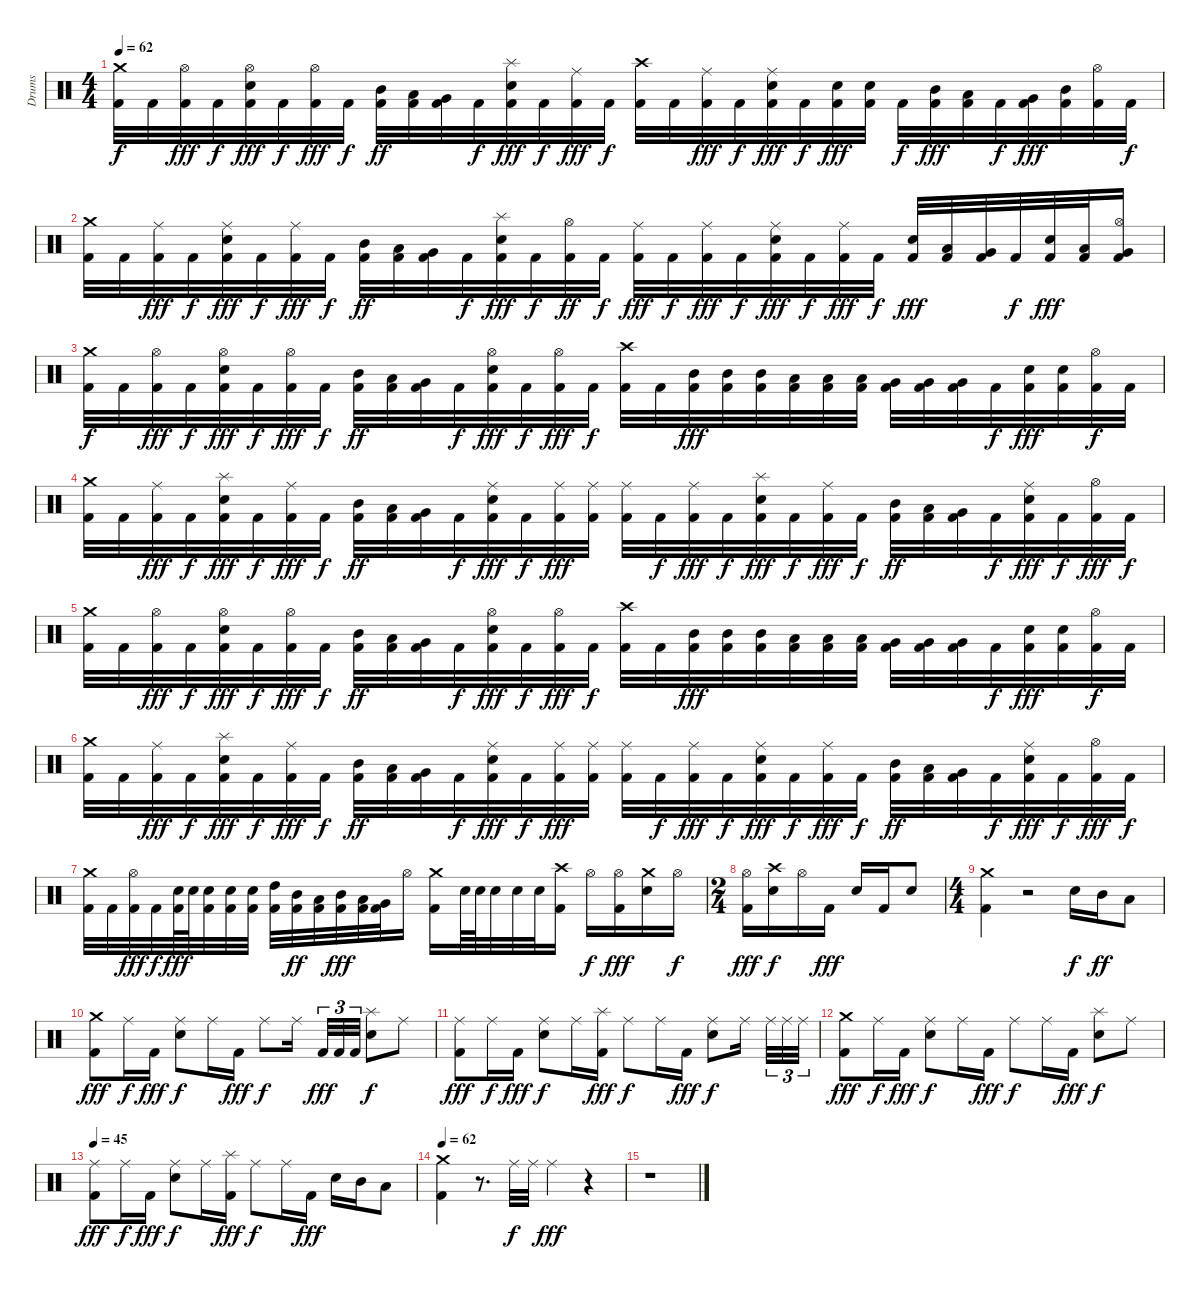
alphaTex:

\track ("Drums" "Drums") {instrument percussion}
\staff {score}
\articulation defaults
\ts (4 4)
\tempo 62
\clef neutral
\ks c
("Crash medium (hit)" "Kick (hit) 2").32{dy f} "Kick (hit) 2".32 ("Hi-Hat (open)" "Kick (hit) 2").32{dy fff} "Kick (hit) 2".32{dy f} ("Hi-Hat (open)" "Electric Snare (hit)" "Kick (hit) 2").32{dy fff} "Kick (hit) 2".32{dy f} ("Hi-Hat (open)" "Kick (hit) 2").32{dy fff} "Kick (hit) 2".32{dy f} ("Mid Tom (hit)" "Kick (hit) 2").32{dy ff} ("Low Tom (hit)" "Kick (hit) 2").32 ("Very Low Tom (hit)" "Kick (hit) 2").32 "Kick (hit) 2".32{dy f} ("Splash (hit)" "Electric Snare (hit)" "Kick (hit) 2").32{dy fff} "Kick (hit) 2".32{dy f} ("Ride (middle)" "Kick (hit) 2").32{dy fff} "Kick (hit) 2".32{dy f} ("Crash high (hit)" "Kick (hit) 2").32 "Kick (hit) 2".32 ("Ride (middle)" "Kick (hit) 2").32{dy fff} "Kick (hit) 2".32{dy f} ("Ride (middle)" "Electric Snare (hit)" "Kick (hit) 2").32{dy fff} "Kick (hit) 2".32{dy f} ("Electric Snare (hit)" "Kick (hit) 2").32{dy fff} ("Electric Snare (hit)" "Kick (hit) 2").32 "Kick (hit) 2".32{dy f} ("Mid Tom (hit)" "Kick (hit) 2").32{dy fff} ("Low Tom (hit)" "Kick (hit) 2").32 "Kick (hit) 2".32{dy f} ("Very Low Tom (hit)" "Kick (hit) 2").32{dy fff} ("Mid Tom (hit)" "Kick (hit) 2").32 ("Hi-Hat (open)" "Kick (hit) 2").32 "Kick (hit) 2".32{dy f} |
("Crash medium (hit)" "Kick (hit) 2").32 "Kick (hit) 2".32 ("Ride (middle)" "Kick (hit) 2").32{dy fff} "Kick (hit) 2".32{dy f} ("Ride (middle)" "Electric Snare (hit)" "Kick (hit) 2").32{dy fff} "Kick (hit) 2".32{dy f} ("Ride (middle)" "Kick (hit) 2").32{dy fff} "Kick (hit) 2".32{dy f} ("Mid Tom (hit)" "Kick (hit) 2").32{dy ff} ("Low Tom (hit)" "Kick (hit) 2").32 ("Very Low Tom (hit)" "Kick (hit) 2").32 "Kick (hit) 2".32{dy f} ("Splash (hit)" "Electric Snare (hit)" "Kick (hit) 2").32{dy fff} "Kick (hit) 2".32{dy f} ("Hi-Hat (open)" "Kick (hit) 2").32{dy ff} "Kick (hit) 2".32{dy f} ("Ride (middle)" "Kick (hit) 2").32{dy fff} "Kick (hit) 2".32{dy f} ("Ride (middle)" "Kick (hit) 2").32{dy fff} "Kick (hit) 2".32{dy f} ("Ride (middle)" "Electric Snare (hit)" "Kick (hit) 2").32{dy fff} "Kick (hit) 2".32{dy f} ("Ride (middle)" "Kick (hit) 2").32{dy fff} "Kick (hit) 2".32{dy f} ("Electric Snare (hit)" "Kick (hit) 2").32{dy fff} ("Low Tom (hit)" "Kick (hit) 2").32 ("Very Low Tom (hit)" "Kick (hit) 2").32 "Kick (hit) 2".32{dy f} ("Electric Snare (hit)" "Kick (hit) 2").32{dy fff} ("Low Tom (hit)" "Kick (hit) 2").32 ("Hi-Hat (open)" "Very Low Tom (hit)" "Kick (hit) 2").16 |
("Crash medium (hit)" "Kick (hit) 2").32{dy f} "Kick (hit) 2".32 ("Hi-Hat (open)" "Kick (hit) 2").32{dy fff} "Kick (hit) 2".32{dy f} ("Hi-Hat (open)" "Electric Snare (hit)" "Kick (hit) 2").32{dy fff} "Kick (hit) 2".32{dy f} ("Hi-Hat (open)" "Kick (hit) 2").32{dy fff} "Kick (hit) 2".32{dy f} ("Mid Tom (hit)" "Kick (hit) 2").32{dy ff} ("Low Tom (hit)" "Kick (hit) 2").32 ("Very Low Tom (hit)" "Kick (hit) 2").32 "Kick (hit) 2".32{dy f} ("Hi-Hat (open)" "Electric Snare (hit)" "Kick (hit) 2").32{dy fff} "Kick (hit) 2".32{dy f} ("Hi-Hat (open)" "Kick (hit) 2").32{dy fff} "Kick (hit) 2".32{dy f} ("Crash high (hit)" "Kick (hit) 2").32 "Kick (hit) 2".32 ("Mid Tom (hit)" "Kick (hit) 2").32{dy fff} ("Mid Tom (hit)" "Kick (hit) 2").32 ("Mid Tom (hit)" "Kick (hit) 2").32 ("Low Tom (hit)" "Kick (hit) 2").32 ("Low Tom (hit)" "Kick (hit) 2").32 ("Low Tom (hit)" "Kick (hit) 2").32 ("Very Low Tom (hit)" "Kick (hit) 2").32 ("Very Low Tom (hit)" "Kick (hit) 2").32 ("Very Low Tom (hit)" "Kick (hit) 2").32 "Kick (hit) 2".32{dy f} ("Electric Snare (hit)" "Kick (hit) 2").32{dy fff} ("Electric Snare (hit)" "Kick (hit) 2").32 ("Hi-Hat (open)" "Kick (hit) 2").32{dy f} "Kick (hit) 2".32 |
("Crash medium (hit)" "Kick (hit) 2").32 "Kick (hit) 2".32 ("Ride (middle)" "Kick (hit) 2").32{dy fff} "Kick (hit) 2".32{dy f} ("Splash (hit)" "Electric Snare (hit)" "Kick (hit) 2").32{dy fff} "Kick (hit) 2".32{dy f} ("Ride (middle)" "Kick (hit) 2").32{dy fff} "Kick (hit) 2".32{dy f} ("Mid Tom (hit)" "Kick (hit) 2").32{dy ff} ("Low Tom (hit)" "Kick (hit) 2").32 ("Very Low Tom (hit)" "Kick (hit) 2").32 "Kick (hit) 2".32{dy f} ("Ride (middle)" "Electric Snare (hit)" "Kick (hit) 2").32{dy fff} "Kick (hit) 2".32{dy f} ("Ride (middle)" "Kick (hit) 2").32{dy fff} ("Ride (middle)" "Kick (hit) 2").32 ("Ride (middle)" "Kick (hit) 2").32 "Kick (hit) 2".32{dy f} ("Ride (middle)" "Kick (hit) 2").32{dy fff} "Kick (hit) 2".32{dy f} ("Splash (hit)" "Electric Snare (hit)" "Kick (hit) 2").32{dy fff} "Kick (hit) 2".32{dy f} ("Ride (middle)" "Kick (hit) 2").32{dy fff} "Kick (hit) 2".32{dy f} ("Mid Tom (hit)" "Kick (hit) 2").32{dy ff} ("Low Tom (hit)" "Kick (hit) 2").32 ("Very Low Tom (hit)" "Kick (hit) 2").32 "Kick (hit) 2".32{dy f} ("Ride (middle)" "Electric Snare (hit)" "Kick (hit) 2").32{dy fff} "Kick (hit) 2".32{dy f} ("Hi-Hat (open)" "Kick (hit) 2").32{dy fff} "Kick (hit) 2".32{dy f} |
("Crash medium (hit)" "Kick (hit) 2").32 "Kick (hit) 2".32 ("Hi-Hat (open)" "Kick (hit) 2").32{dy fff} "Kick (hit) 2".32{dy f} ("Hi-Hat (open)" "Electric Snare (hit)" "Kick (hit) 2").32{dy fff} "Kick (hit) 2".32{dy f} ("Hi-Hat (open)" "Kick (hit) 2").32{dy fff} "Kick (hit) 2".32{dy f} ("Mid Tom (hit)" "Kick (hit) 2").32{dy ff} ("Low Tom (hit)" "Kick (hit) 2").32 ("Very Low Tom (hit)" "Kick (hit) 2").32 "Kick (hit) 2".32{dy f} ("Hi-Hat (open)" "Electric Snare (hit)" "Kick (hit) 2").32{dy fff} "Kick (hit) 2".32{dy f} ("Hi-Hat (open)" "Kick (hit) 2").32{dy fff} "Kick (hit) 2".32{dy f} ("Crash high (hit)" "Kick (hit) 2").32 "Kick (hit) 2".32 ("Mid Tom (hit)" "Kick (hit) 2").32{dy fff} ("Mid Tom (hit)" "Kick (hit) 2").32 ("Mid Tom (hit)" "Kick (hit) 2").32 ("Low Tom (hit)" "Kick (hit) 2").32 ("Low Tom (hit)" "Kick (hit) 2").32 ("Low Tom (hit)" "Kick (hit) 2").32 ("Very Low Tom (hit)" "Kick (hit) 2").32 ("Very Low Tom (hit)" "Kick (hit) 2").32 ("Very Low Tom (hit)" "Kick (hit) 2").32 "Kick (hit) 2".32{dy f} ("Electric Snare (hit)" "Kick (hit) 2").32{dy fff} ("Electric Snare (hit)" "Kick (hit) 2").32 ("Hi-Hat (open)" "Kick (hit) 2").32{dy f} "Kick (hit) 2".32 |
("Crash medium (hit)" "Kick (hit) 2").32 "Kick (hit) 2".32 ("Ride (middle)" "Kick (hit) 2").32{dy fff} "Kick (hit) 2".32{dy f} ("Splash (hit)" "Electric Snare (hit)" "Kick (hit) 2").32{dy fff} "Kick (hit) 2".32{dy f} ("Ride (middle)" "Kick (hit) 2").32{dy fff} "Kick (hit) 2".32{dy f} ("Mid Tom (hit)" "Kick (hit) 2").32{dy ff} ("Low Tom (hit)" "Kick (hit) 2").32 ("Very Low Tom (hit)" "Kick (hit) 2").32 "Kick (hit) 2".32{dy f} ("Ride (middle)" "Electric Snare (hit)" "Kick (hit) 2").32{dy fff} "Kick (hit) 2".32{dy f} ("Ride (middle)" "Kick (hit) 2").32{dy fff} ("Ride (middle)" "Kick (hit) 2").32 ("Ride (middle)" "Kick (hit) 2").32 "Kick (hit) 2".32{dy f} ("Ride (middle)" "Kick (hit) 2").32{dy fff} "Kick (hit) 2".32{dy f} ("Ride (middle)" "Electric Snare (hit)" "Kick (hit) 2").32{dy fff} "Kick (hit) 2".32{dy f} ("Ride (middle)" "Kick (hit) 2").32{dy fff} "Kick (hit) 2".32{dy f} ("Mid Tom (hit)" "Kick (hit) 2").32{dy ff} ("Low Tom (hit)" "Kick (hit) 2").32 ("Very Low Tom (hit)" "Kick (hit) 2").32 "Kick (hit) 2".32{dy f} ("Ride (middle)" "Electric Snare (hit)" "Kick (hit) 2").32{dy fff} "Kick (hit) 2".32{dy f} ("Hi-Hat (open)" "Kick (hit) 2").32{dy fff} "Kick (hit) 2".32{dy f} |
("Crash medium (hit)" "Kick (hit) 2").32 "Kick (hit) 2".32 ("Hi-Hat (open)" "Kick (hit) 2").32{dy fff} "Kick (hit) 2".32{dy f} ("Electric Snare (hit)" "Kick (hit) 2").64{dy fff} "Electric Snare (hit)".64 ("Electric Snare (hit)" "Kick (hit) 2").32 ("Electric Snare (hit)" "Kick (hit) 2").32 ("Electric Snare (hit)" "Kick (hit) 2").32 ("High Tom (hit)" "Kick (hit) 2").32 ("Mid Tom (hit)" "Kick (hit) 2").32{dy ff} ("Low Tom (hit)" "Kick (hit) 2").32 ("Mid Tom (hit)" "Kick (hit) 2").32{dy fff} ("Low Tom (hit)" "Kick (hit) 2").32 ("Very Low Tom (hit)" "Kick (hit) 2").32 "Hi-Hat (open)".16 ("Crash medium (hit)" "Kick (hit) 2").16 "Electric Snare (hit)".64 "Electric Snare (hit)".64 "Electric Snare (hit)".32 "Electric Snare (hit)".32 "Electric Snare (hit)".32 ("Crash high (hit)" "Kick (hit) 2").16 "Hi-Hat (open)".16{dy f} ("Hi-Hat (open)" "Kick (hit) 2").16{dy fff} ("Crash medium (hit)" "Electric Snare (hit)").16 "Hi-Hat (open)".16{dy f} |
\ts (2 4)
("Hi-Hat (open)" "Kick (hit) 2").16{dy fff} ("Crash high (hit)" "Electric Snare (hit)").16{dy f} "Hi-Hat (open)".16 "Kick (hit) 2".16{dy fff} "Electric Snare (hit)".16 "Kick (hit) 2".16 "Electric Snare (hit)".8 |
\ts (4 4)
("Crash medium (hit)" "Kick (hit) 2").4 r.2 "Electric Snare (hit)".16{dy f} "Mid Tom (hit)".16{dy ff} "Low Tom (hit)".8 |
("Crash medium (hit)" "Kick (hit) 2").8{dy fff} "Ride (middle)".16{dy f} "Kick (hit) 2".16{dy fff} ("Ride (middle)" "Electric Snare (hit)").8{dy f} "Ride (middle)".16 "Kick (hit) 2".16{dy fff} "Ride (middle)".8{dy f} "Ride (middle)".16 "Kick (hit) 2".32{tu (3 2) dy fff} "Kick (hit) 2".32{tu (3 2)} "Kick (hit) 2".32{tu (3 2)} ("Splash (hit)" "Electric Snare (hit)").8{dy f} "Ride (middle)".8 |
("Ride (middle)" "Kick (hit) 2").8{dy fff} "Ride (middle)".16{dy f} "Kick (hit) 2".16{dy fff} ("Ride (middle)" "Electric Snare (hit)").8{dy f} "Ride (middle)".16 ("Splash (hit)" "Kick (hit) 2").16{dy fff} "Ride (middle)".8{dy f} "Ride (middle)".16 "Kick (hit) 2".16{dy fff} ("Ride (middle)" "Electric Snare (hit)").8{dy f} "Ride (middle)".16 "Ride (middle)".32{tu (3 2)} "Ride (middle)".32{tu (3 2)} "Ride (middle)".32{tu (3 2)} |
("Crash medium (hit)" "Kick (hit) 2").8{dy fff} "Ride (middle)".16{dy f} "Kick (hit) 2".16{dy fff} ("Ride (middle)" "Electric Snare (hit)").8{dy f} "Ride (middle)".16 "Kick (hit) 2".16{dy fff} "Ride (middle)".8{dy f} "Ride (middle)".16 "Kick (hit) 2".16{dy fff} ("Splash (hit)" "Electric Snare (hit)").8{dy f} "Ride (middle)".8 |
\tempo 45
("Ride (middle)" "Kick (hit) 2").8{dy fff} "Ride (middle)".16{dy f} "Kick (hit) 2".16{dy fff} ("Ride (middle)" "Electric Snare (hit)").8{dy f} "Ride (middle)".16 ("Splash (hit)" "Kick (hit) 2").16{dy fff} "Ride (middle)".8{dy f} "Ride (middle)".16 "Kick (hit) 2".16{dy fff} "Electric Snare (hit)".16 "Mid Tom (hit)".16 "Low Tom (hit)".8 |
\tempo 62
("Crash medium (hit)" "Kick (hit) 2").4 r.8{d} "Ride (middle)".32{dy f} "Ride (middle)".32 "Ride (middle)".4{dy fff} r.4 |
r.1
